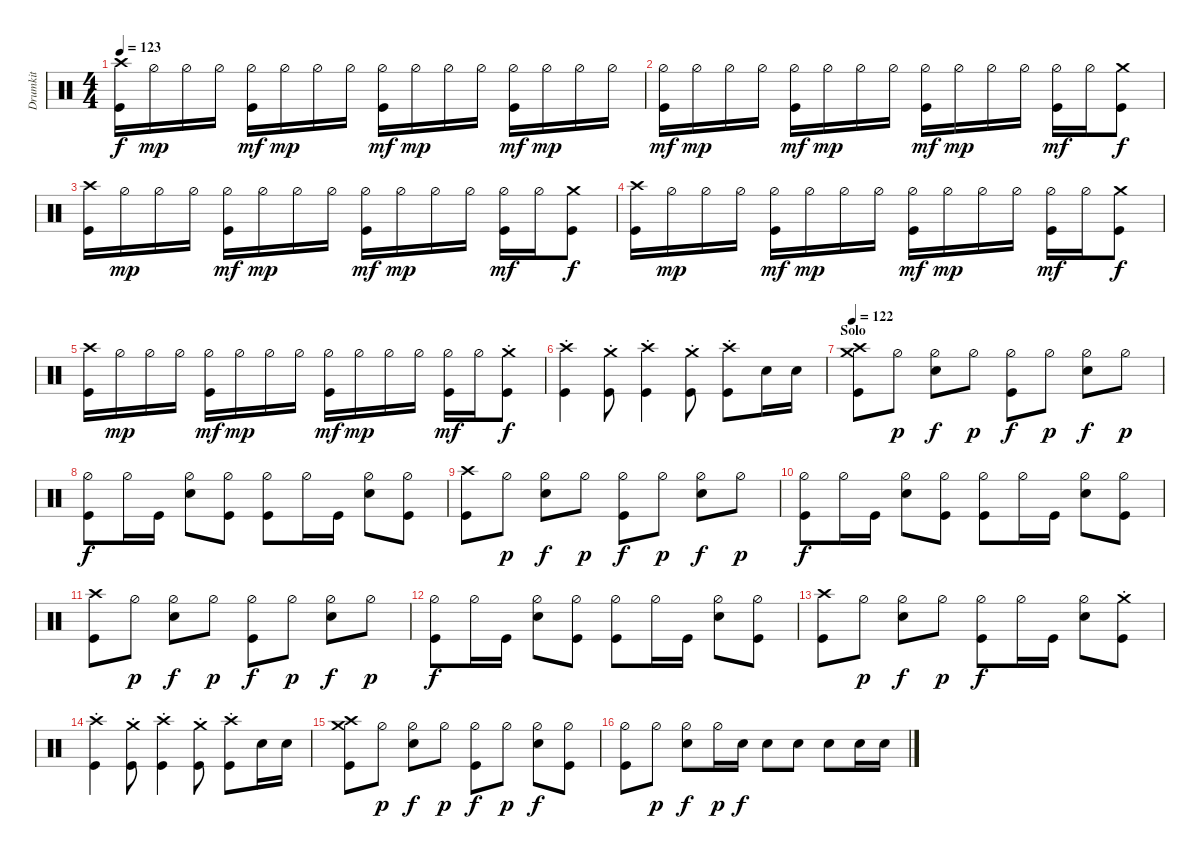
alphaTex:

\track ("Drumkit" "Drumkit") {instrument percussion}
\staff {score}
\articulation defaults
\ts (4 4)
\tempo 123
\clef neutral
\ks c
("Kick (hit)" "Crash high (hit)").16{dy f} "Hi-Hat (half)".16{dy mp} "Hi-Hat (half)".16 "Hi-Hat (half)".16 ("Hi-Hat (half)" "Kick (hit)").16{dy mf} "Hi-Hat (half)".16{dy mp} "Hi-Hat (half)".16 "Hi-Hat (half)".16 ("Hi-Hat (half)" "Kick (hit)").16{dy mf} "Hi-Hat (half)".16{dy mp} "Hi-Hat (half)".16 "Hi-Hat (half)".16 ("Hi-Hat (half)" "Kick (hit)").16{dy mf} "Hi-Hat (half)".16{dy mp} "Hi-Hat (half)".16 "Hi-Hat (half)".16 |
("Kick (hit)" "Hi-Hat (half)").16{dy mf} "Hi-Hat (half)".16{dy mp} "Hi-Hat (half)".16 "Hi-Hat (half)".16 ("Hi-Hat (half)" "Kick (hit)").16{dy mf} "Hi-Hat (half)".16{dy mp} "Hi-Hat (half)".16 "Hi-Hat (half)".16 ("Hi-Hat (half)" "Kick (hit)").16{dy mf} "Hi-Hat (half)".16{dy mp} "Hi-Hat (half)".16 "Hi-Hat (half)".16 ("Kick (hit)" "Hi-Hat (half)").16{dy mf} "Hi-Hat (half)".16 ("Kick (hit)" "Crash medium (hit)").8{dy f} |
("Kick (hit)" "Crash high (hit)").16 "Hi-Hat (half)".16{dy mp} "Hi-Hat (half)".16 "Hi-Hat (half)".16 ("Hi-Hat (half)" "Kick (hit)").16{dy mf} "Hi-Hat (half)".16{dy mp} "Hi-Hat (half)".16 "Hi-Hat (half)".16 ("Hi-Hat (half)" "Kick (hit)").16{dy mf} "Hi-Hat (half)".16{dy mp} "Hi-Hat (half)".16 "Hi-Hat (half)".16 ("Kick (hit)" "Hi-Hat (half)").16{dy mf} "Hi-Hat (half)".16 ("Kick (hit)" "Crash medium (hit)").8{dy f} |
("Kick (hit)" "Crash high (hit)").16 "Hi-Hat (half)".16{dy mp} "Hi-Hat (half)".16 "Hi-Hat (half)".16 ("Hi-Hat (half)" "Kick (hit)").16{dy mf} "Hi-Hat (half)".16{dy mp} "Hi-Hat (half)".16 "Hi-Hat (half)".16 ("Hi-Hat (half)" "Kick (hit)").16{dy mf} "Hi-Hat (half)".16{dy mp} "Hi-Hat (half)".16 "Hi-Hat (half)".16 ("Kick (hit)" "Hi-Hat (half)").16{dy mf} "Hi-Hat (half)".16 ("Kick (hit)" "Crash medium (hit)").8{dy f} |
("Kick (hit)" "Crash high (hit)").16 "Hi-Hat (half)".16{dy mp} "Hi-Hat (half)".16 "Hi-Hat (half)".16 ("Hi-Hat (half)" "Kick (hit)").16{dy mf} "Hi-Hat (half)".16{dy mp} "Hi-Hat (half)".16 "Hi-Hat (half)".16 ("Hi-Hat (half)" "Kick (hit)").16{dy mf} "Hi-Hat (half)".16{dy mp} "Hi-Hat (half)".16 "Hi-Hat (half)".16 ("Kick (hit)" "Hi-Hat (half)").16{dy mf} "Hi-Hat (half)".16 ("Kick (hit)" "Crash medium (choke)").8{dy f} |
("Kick (hit)" "Crash high (choke)").4 ("Kick (hit)" "Crash medium (choke)").8 ("Kick (hit)" "Crash high (choke)").4 ("Kick (hit)" "Crash medium (choke)").8 ("Kick (hit)" "Crash high (choke)").8 "Snare (hit) 2".16 "Snare (hit) 2".16 |
\section ("" "Solo")
\tempo 122
("Kick (hit)" "Crash medium (hit)" "Crash high (hit)").8 "Hi-Hat (half)".8{dy p} ("Hi-Hat (half)" "Snare (hit) 2").8{dy f} "Hi-Hat (half)".8{dy p} ("Hi-Hat (half)" "Kick (hit)").8{dy f} "Hi-Hat (half)".8{dy p} ("Hi-Hat (half)" "Snare (hit) 2").8{dy f} "Hi-Hat (half)".8{dy p} |
("Kick (hit)" "Hi-Hat (half)").8{dy f} "Hi-Hat (half)".16 "Kick (hit)".16 ("Hi-Hat (half)" "Snare (hit) 2").8 ("Hi-Hat (half)" "Kick (hit)").8 ("Hi-Hat (half)" "Kick (hit)").8 "Hi-Hat (half)".16 "Kick (hit)".16 ("Hi-Hat (half)" "Snare (hit) 2").8 ("Hi-Hat (half)" "Kick (hit)").8 |
("Kick (hit)" "Crash high (hit)").8 "Hi-Hat (half)".8{dy p} ("Hi-Hat (half)" "Snare (hit) 2").8{dy f} "Hi-Hat (half)".8{dy p} ("Hi-Hat (half)" "Kick (hit)").8{dy f} "Hi-Hat (half)".8{dy p} ("Hi-Hat (half)" "Snare (hit) 2").8{dy f} "Hi-Hat (half)".8{dy p} |
("Kick (hit)" "Hi-Hat (half)").8{dy f} "Hi-Hat (half)".16 "Kick (hit)".16 ("Hi-Hat (half)" "Snare (hit) 2").8 ("Hi-Hat (half)" "Kick (hit)").8 ("Hi-Hat (half)" "Kick (hit)").8 "Hi-Hat (half)".16 "Kick (hit)".16 ("Hi-Hat (half)" "Snare (hit) 2").8 ("Hi-Hat (half)" "Kick (hit)").8 |
("Kick (hit)" "Crash high (hit)").8 "Hi-Hat (half)".8{dy p} ("Hi-Hat (half)" "Snare (hit) 2").8{dy f} "Hi-Hat (half)".8{dy p} ("Hi-Hat (half)" "Kick (hit)").8{dy f} "Hi-Hat (half)".8{dy p} ("Hi-Hat (half)" "Snare (hit) 2").8{dy f} "Hi-Hat (half)".8{dy p} |
("Kick (hit)" "Hi-Hat (half)").8{dy f} "Hi-Hat (half)".16 "Kick (hit)".16 ("Hi-Hat (half)" "Snare (hit) 2").8 ("Hi-Hat (half)" "Kick (hit)").8 ("Hi-Hat (half)" "Kick (hit)").8 "Hi-Hat (half)".16 "Kick (hit)".16 ("Hi-Hat (half)" "Snare (hit) 2").8 ("Hi-Hat (half)" "Kick (hit)").8 |
("Kick (hit)" "Crash high (hit)").8 "Hi-Hat (half)".8{dy p} ("Hi-Hat (half)" "Snare (hit) 2").8{dy f} "Hi-Hat (half)".8{dy p} ("Hi-Hat (half)" "Kick (hit)").8{dy f} "Hi-Hat (half)".16 "Kick (hit)".16 ("Hi-Hat (half)" "Snare (hit) 2").8 ("Kick (hit)" "Crash medium (choke)").8 |
("Kick (hit)" "Crash high (choke)").4 ("Kick (hit)" "Crash medium (choke)").8 ("Kick (hit)" "Crash high (choke)").4 ("Kick (hit)" "Crash medium (choke)").8 ("Kick (hit)" "Crash high (choke)").8 "Snare (hit) 2".16 "Snare (hit) 2".16 |
("Kick (hit)" "Crash medium (hit)" "Crash high (hit)").8 "Hi-Hat (half)".8{dy p} ("Hi-Hat (half)" "Snare (hit) 2").8{dy f} "Hi-Hat (half)".8{dy p} ("Hi-Hat (half)" "Kick (hit)").8{dy f} "Hi-Hat (half)".8{dy p} ("Hi-Hat (half)" "Snare (hit) 2").8{dy f} ("Hi-Hat (half)" "Kick (hit)").8 |
("Kick (hit)" "Hi-Hat (half)").8 "Hi-Hat (half)".8{dy p} ("Hi-Hat (half)" "Snare (hit) 2").8{dy f} "Hi-Hat (half)".16{dy p} "Snare (hit) 2".16{dy f} "Snare (hit) 2".8 "Snare (hit) 2".8 "Snare (hit) 2".8 "Snare (hit) 2".16 "Snare (hit) 2".16
